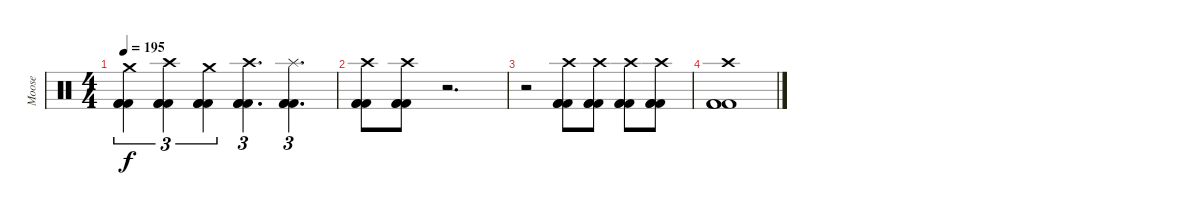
\track ("Moose" "Moose") {instrument percussion}
\staff {score}
\articulation defaults
\ts (4 4)
\tempo 195
\clef neutral
\ks c
("Kick (hit) 2" "Kick (hit) 2" "Kick (hit) 2" "Crash medium (hit)").4{tu (3 2) dy f} ("Kick (hit) 2" "Kick (hit) 2" "Kick (hit) 2" "Crash high (hit)").4{tu (3 2)} ("Kick (hit) 2" "Kick (hit) 2" "Kick (hit) 2" "Crash medium (hit)").4{tu (3 2)} ("Kick (hit) 2" "Kick (hit) 2" "Kick (hit) 2" "Crash high (hit)").4{d tu (3 2)} ("Kick (hit) 2" "Kick (hit) 2" "Kick (hit) 2" "Splash (hit)").4{d tu (3 2)} |
("Kick (hit) 2" "Kick (hit) 2" "Kick (hit) 2" "Crash high (hit)").8 ("Kick (hit) 2" "Kick (hit) 2" "Kick (hit) 2" "Crash high (hit)").8 r.2{d} |
r.2 ("Kick (hit) 2" "Kick (hit) 2" "Kick (hit) 2" "Crash high (hit)").8 ("Kick (hit) 2" "Kick (hit) 2" "Kick (hit) 2" "Crash high (hit)").8 ("Kick (hit) 2" "Kick (hit) 2" "Kick (hit) 2" "Crash high (hit)").8 ("Kick (hit) 2" "Kick (hit) 2" "Kick (hit) 2" "Crash high (hit)").8 |
("Kick (hit) 2" "Kick (hit) 2" "Kick (hit) 2" "Crash high (hit)").1
